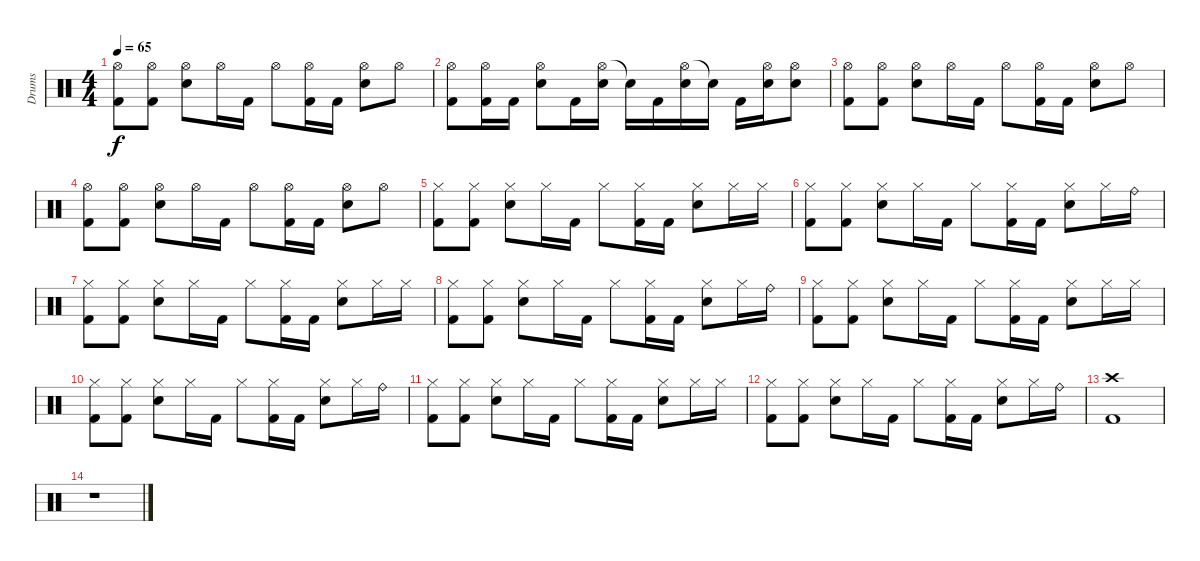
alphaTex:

\track ("Drums" "Drums") {instrument percussion}
\staff {score}
\articulation defaults
\ts (4 4)
\tempo 65
\clef neutral
\ks c
("Hi-Hat (open)" "Kick (hit) 2").8{dy f} ("Hi-Hat (open)" "Kick (hit) 2").8 ("Hi-Hat (open)" "Snare (hit) 2").8 "Hi-Hat (open)".16 "Kick (hit) 2".16 "Hi-Hat (open)".8 ("Hi-Hat (open)" "Kick (hit) 2").16 "Kick (hit) 2".16 ("Hi-Hat (open)" "Snare (hit) 2").8 "Hi-Hat (open)".8 |
("Hi-Hat (open)" "Kick (hit) 2").8 ("Hi-Hat (open)" "Kick (hit) 2").16 "Kick (hit) 2".16 ("Hi-Hat (open)" "Snare (hit) 2").8 "Kick (hit) 2".16 ("Hi-Hat (open)" "Snare (hit) 2").16 "Snare (hit)"{t}.16 "Kick (hit) 2".16 ("Hi-Hat (open)" "Snare (hit) 2").16 "Snare (hit)"{t}.16 "Kick (hit) 2".16 ("Hi-Hat (open)" "Snare (hit) 2").16 ("Hi-Hat (open)" "Snare (hit) 2").8 |
("Hi-Hat (open)" "Kick (hit) 2").8 ("Hi-Hat (open)" "Kick (hit) 2").8 ("Hi-Hat (open)" "Snare (hit) 2").8 "Hi-Hat (open)".16 "Kick (hit) 2".16 "Hi-Hat (open)".8 ("Hi-Hat (open)" "Kick (hit) 2").16 "Kick (hit) 2".16 ("Hi-Hat (open)" "Snare (hit) 2").8 "Hi-Hat (open)".8 |
("Hi-Hat (open)" "Kick (hit) 2").8 ("Hi-Hat (open)" "Kick (hit) 2").8 ("Hi-Hat (open)" "Snare (hit) 2").8 "Hi-Hat (open)".16 "Kick (hit) 2".16 "Hi-Hat (open)".8 ("Hi-Hat (open)" "Kick (hit) 2").16 "Kick (hit) 2".16 ("Hi-Hat (open)" "Snare (hit) 2").8 "Hi-Hat (open)".8 |
("Hi-Hat (closed)" "Kick (hit) 2").8 ("Hi-Hat (closed)" "Kick (hit) 2").8 ("Hi-Hat (closed)" "Snare (hit) 2").8 "Hi-Hat (closed)".16 "Kick (hit) 2".16 "Hi-Hat (closed)".8 ("Hi-Hat (closed)" "Kick (hit) 2").16 "Kick (hit) 2".16 ("Hi-Hat (closed)" "Snare (hit) 2").8 "Hi-Hat (closed)".16 "Hi-Hat (closed)".16 |
("Hi-Hat (closed)" "Kick (hit) 2").8 ("Hi-Hat (closed)" "Kick (hit) 2").8 ("Hi-Hat (closed)" "Snare (hit) 2").8 "Hi-Hat (closed)".16 "Kick (hit) 2".16 "Hi-Hat (closed)".8 ("Hi-Hat (closed)" "Kick (hit) 2").16 "Kick (hit) 2".16 ("Hi-Hat (closed)" "Snare (hit) 2").8 "Hi-Hat (closed)".16 "Ride (bell)".16 |
("Hi-Hat (closed)" "Kick (hit) 2").8 ("Hi-Hat (closed)" "Kick (hit) 2").8 ("Hi-Hat (closed)" "Snare (hit) 2").8 "Hi-Hat (closed)".16 "Kick (hit) 2".16 "Hi-Hat (closed)".8 ("Hi-Hat (closed)" "Kick (hit) 2").16 "Kick (hit) 2".16 ("Hi-Hat (closed)" "Snare (hit) 2").8 "Hi-Hat (closed)".16 "Hi-Hat (closed)".16 |
("Hi-Hat (closed)" "Kick (hit) 2").8 ("Hi-Hat (closed)" "Kick (hit) 2").8 ("Hi-Hat (closed)" "Snare (hit) 2").8 "Hi-Hat (closed)".16 "Kick (hit) 2".16 "Hi-Hat (closed)".8 ("Hi-Hat (closed)" "Kick (hit) 2").16 "Kick (hit) 2".16 ("Hi-Hat (closed)" "Snare (hit) 2").8 "Hi-Hat (closed)".16 "Ride (bell)".16 |
("Hi-Hat (closed)" "Kick (hit) 2").8 ("Hi-Hat (closed)" "Kick (hit) 2").8 ("Hi-Hat (closed)" "Snare (hit) 2").8 "Hi-Hat (closed)".16 "Kick (hit) 2".16 "Hi-Hat (closed)".8 ("Hi-Hat (closed)" "Kick (hit) 2").16 "Kick (hit) 2".16 ("Hi-Hat (closed)" "Snare (hit) 2").8 "Hi-Hat (closed)".16 "Hi-Hat (closed)".16 |
("Hi-Hat (closed)" "Kick (hit) 2").8 ("Hi-Hat (closed)" "Kick (hit) 2").8 ("Hi-Hat (closed)" "Snare (hit) 2").8 "Hi-Hat (closed)".16 "Kick (hit) 2".16 "Hi-Hat (closed)".8 ("Hi-Hat (closed)" "Kick (hit) 2").16 "Kick (hit) 2".16 ("Hi-Hat (closed)" "Snare (hit) 2").8 "Hi-Hat (closed)".16 "Ride (bell)".16 |
("Hi-Hat (closed)" "Kick (hit) 2").8 ("Hi-Hat (closed)" "Kick (hit) 2").8 ("Hi-Hat (closed)" "Snare (hit) 2").8 "Hi-Hat (closed)".16 "Kick (hit) 2".16 "Hi-Hat (closed)".8 ("Hi-Hat (closed)" "Kick (hit) 2").16 "Kick (hit) 2".16 ("Hi-Hat (closed)" "Snare (hit) 2").8 "Hi-Hat (closed)".16 "Hi-Hat (closed)".16 |
("Hi-Hat (closed)" "Kick (hit) 2").8 ("Hi-Hat (closed)" "Kick (hit) 2").8 ("Hi-Hat (closed)" "Snare (hit) 2").8 "Hi-Hat (closed)".16 "Kick (hit) 2".16 "Hi-Hat (closed)".8 ("Hi-Hat (closed)" "Kick (hit) 2").16 "Kick (hit) 2".16 ("Hi-Hat (closed)" "Snare (hit) 2").8 "Hi-Hat (closed)".16 "Ride (bell)".16 |
("Crash high (hit)" "Kick (hit) 2").1 |
r.1
